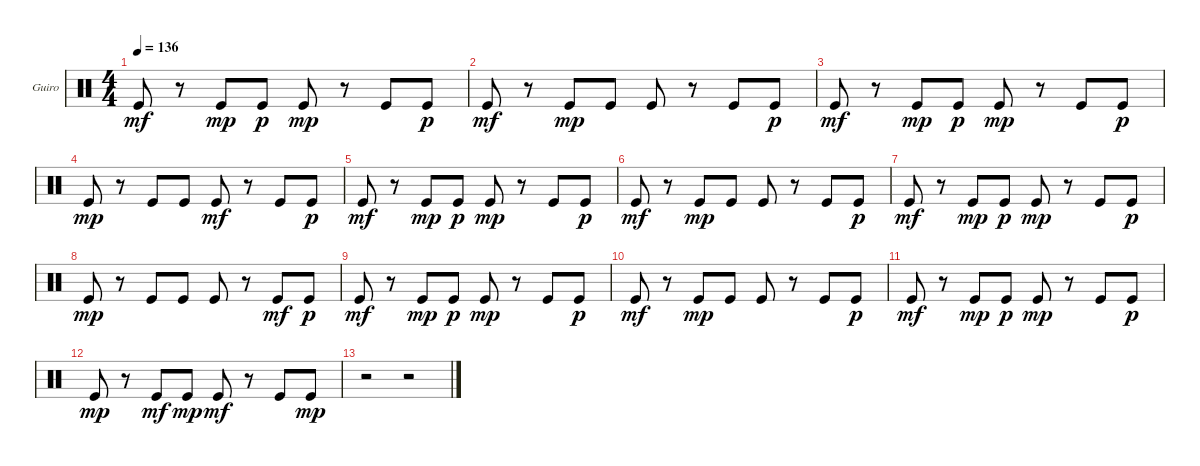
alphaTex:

\bracketExtendMode groupsimilarinstruments
\firstSystemTrackNameOrientation horizontal
\otherSystemsTrackNameOrientation horizontal
\track ("Guiro" "Guiro") {instrument percussion}
\staff {score}
\articulation defaults
\ts (4 4)
\tempo 136
\clef neutral
\ks c "Kick (hit)".8{dy mf}
r.8 "Kick (hit)".8{dy mp} "Kick (hit)".8{dy p} "Kick (hit)".8{dy mp} r.8 "Kick (hit)".8 "Kick (hit)".8{dy p} |
"Kick (hit)".8{dy mf} r.8 "Kick (hit)".8{dy mp} "Kick (hit)".8 "Kick (hit)".8 r.8 "Kick (hit)".8 "Kick (hit)".8{dy p} |
"Kick (hit)".8{dy mf} r.8 "Kick (hit)".8{dy mp} "Kick (hit)".8{dy p} "Kick (hit)".8{dy mp} r.8 "Kick (hit)".8 "Kick (hit)".8{dy p} |
"Kick (hit)".8{dy mp} r.8 "Kick (hit)".8 "Kick (hit)".8 "Kick (hit)".8{dy mf} r.8 "Kick (hit)".8 "Kick (hit)".8{dy p} |
"Kick (hit)".8{dy mf} r.8 "Kick (hit)".8{dy mp} "Kick (hit)".8{dy p} "Kick (hit)".8{dy mp} r.8 "Kick (hit)".8 "Kick (hit)".8{dy p} |
"Kick (hit)".8{dy mf} r.8 "Kick (hit)".8{dy mp} "Kick (hit)".8 "Kick (hit)".8 r.8 "Kick (hit)".8 "Kick (hit)".8{dy p} |
"Kick (hit)".8{dy mf} r.8 "Kick (hit)".8{dy mp} "Kick (hit)".8{dy p} "Kick (hit)".8{dy mp} r.8 "Kick (hit)".8 "Kick (hit)".8{dy p} |
"Kick (hit)".8{dy mp} r.8 "Kick (hit)".8 "Kick (hit)".8 "Kick (hit)".8 r.8 "Kick (hit)".8{dy mf} "Kick (hit)".8{dy p} |
"Kick (hit)".8{dy mf} r.8 "Kick (hit)".8{dy mp} "Kick (hit)".8{dy p} "Kick (hit)".8{dy mp} r.8 "Kick (hit)".8 "Kick (hit)".8{dy p} |
"Kick (hit)".8{dy mf} r.8 "Kick (hit)".8{dy mp} "Kick (hit)".8 "Kick (hit)".8 r.8 "Kick (hit)".8 "Kick (hit)".8{dy p} |
"Kick (hit)".8{dy mf} r.8 "Kick (hit)".8{dy mp} "Kick (hit)".8{dy p} "Kick (hit)".8{dy mp} r.8 "Kick (hit)".8 "Kick (hit)".8{dy p} |
"Kick (hit)".8{dy mp} r.8 "Kick (hit)".8{dy mf} "Kick (hit)".8{dy mp} "Kick (hit)".8{dy mf} r.8 "Kick (hit)".8 "Kick (hit)".8{dy mp} |
r.2 r.2
